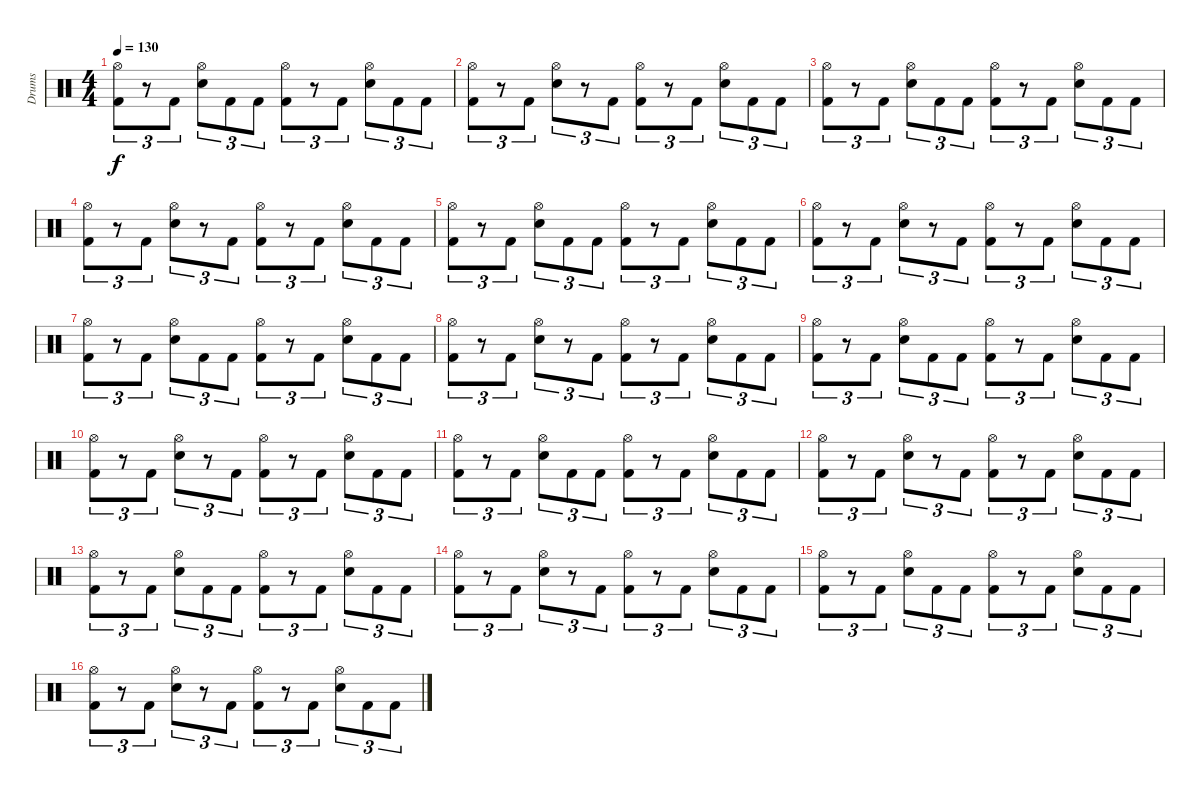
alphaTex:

\track ("Drums" "Drums") {instrument percussion}
\staff {score}
\articulation defaults
\ts (4 4)
\tempo 130
\clef neutral
\ks c
("Hi-Hat (open)" "Kick (hit) 2").8{tu (3 2) dy f} r.8{tu (3 2)} "Kick (hit) 2".8{tu (3 2)} ("Hi-Hat (open)" "Snare (hit) 2").8{tu (3 2)} "Kick (hit) 2".8{tu (3 2)} "Kick (hit) 2".8{tu (3 2)} ("Hi-Hat (open)" "Kick (hit) 2").8{tu (3 2)} r.8{tu (3 2)} "Kick (hit) 2".8{tu (3 2)} ("Hi-Hat (open)" "Snare (hit) 2").8{tu (3 2)} "Kick (hit) 2".8{tu (3 2)} "Kick (hit) 2".8{tu (3 2)} |
("Hi-Hat (open)" "Kick (hit) 2").8{tu (3 2)} r.8{tu (3 2)} "Kick (hit) 2".8{tu (3 2)} ("Hi-Hat (open)" "Snare (hit) 2").8{tu (3 2)} r.8{tu (3 2)} "Kick (hit) 2".8{tu (3 2)} ("Hi-Hat (open)" "Kick (hit) 2").8{tu (3 2)} r.8{tu (3 2)} "Kick (hit) 2".8{tu (3 2)} ("Hi-Hat (open)" "Snare (hit) 2").8{tu (3 2)} "Kick (hit) 2".8{tu (3 2)} "Kick (hit) 2".8{tu (3 2)} |
("Hi-Hat (open)" "Kick (hit) 2").8{tu (3 2)} r.8{tu (3 2)} "Kick (hit) 2".8{tu (3 2)} ("Hi-Hat (open)" "Snare (hit) 2").8{tu (3 2)} "Kick (hit) 2".8{tu (3 2)} "Kick (hit) 2".8{tu (3 2)} ("Hi-Hat (open)" "Kick (hit) 2").8{tu (3 2)} r.8{tu (3 2)} "Kick (hit) 2".8{tu (3 2)} ("Hi-Hat (open)" "Snare (hit) 2").8{tu (3 2)} "Kick (hit) 2".8{tu (3 2)} "Kick (hit) 2".8{tu (3 2)} |
("Hi-Hat (open)" "Kick (hit) 2").8{tu (3 2)} r.8{tu (3 2)} "Kick (hit) 2".8{tu (3 2)} ("Hi-Hat (open)" "Snare (hit) 2").8{tu (3 2)} r.8{tu (3 2)} "Kick (hit) 2".8{tu (3 2)} ("Hi-Hat (open)" "Kick (hit) 2").8{tu (3 2)} r.8{tu (3 2)} "Kick (hit) 2".8{tu (3 2)} ("Hi-Hat (open)" "Snare (hit) 2").8{tu (3 2)} "Kick (hit) 2".8{tu (3 2)} "Kick (hit) 2".8{tu (3 2)} |
("Hi-Hat (open)" "Kick (hit) 2").8{tu (3 2)} r.8{tu (3 2)} "Kick (hit) 2".8{tu (3 2)} ("Hi-Hat (open)" "Snare (hit) 2").8{tu (3 2)} "Kick (hit) 2".8{tu (3 2)} "Kick (hit) 2".8{tu (3 2)} ("Hi-Hat (open)" "Kick (hit) 2").8{tu (3 2)} r.8{tu (3 2)} "Kick (hit) 2".8{tu (3 2)} ("Hi-Hat (open)" "Snare (hit) 2").8{tu (3 2)} "Kick (hit) 2".8{tu (3 2)} "Kick (hit) 2".8{tu (3 2)} |
("Hi-Hat (open)" "Kick (hit) 2").8{tu (3 2)} r.8{tu (3 2)} "Kick (hit) 2".8{tu (3 2)} ("Hi-Hat (open)" "Snare (hit) 2").8{tu (3 2)} r.8{tu (3 2)} "Kick (hit) 2".8{tu (3 2)} ("Hi-Hat (open)" "Kick (hit) 2").8{tu (3 2)} r.8{tu (3 2)} "Kick (hit) 2".8{tu (3 2)} ("Hi-Hat (open)" "Snare (hit) 2").8{tu (3 2)} "Kick (hit) 2".8{tu (3 2)} "Kick (hit) 2".8{tu (3 2)} |
("Hi-Hat (open)" "Kick (hit) 2").8{tu (3 2)} r.8{tu (3 2)} "Kick (hit) 2".8{tu (3 2)} ("Hi-Hat (open)" "Snare (hit) 2").8{tu (3 2)} "Kick (hit) 2".8{tu (3 2)} "Kick (hit) 2".8{tu (3 2)} ("Hi-Hat (open)" "Kick (hit) 2").8{tu (3 2)} r.8{tu (3 2)} "Kick (hit) 2".8{tu (3 2)} ("Hi-Hat (open)" "Snare (hit) 2").8{tu (3 2)} "Kick (hit) 2".8{tu (3 2)} "Kick (hit) 2".8{tu (3 2)} |
("Hi-Hat (open)" "Kick (hit) 2").8{tu (3 2)} r.8{tu (3 2)} "Kick (hit) 2".8{tu (3 2)} ("Hi-Hat (open)" "Snare (hit) 2").8{tu (3 2)} r.8{tu (3 2)} "Kick (hit) 2".8{tu (3 2)} ("Hi-Hat (open)" "Kick (hit) 2").8{tu (3 2)} r.8{tu (3 2)} "Kick (hit) 2".8{tu (3 2)} ("Hi-Hat (open)" "Snare (hit) 2").8{tu (3 2)} "Kick (hit) 2".8{tu (3 2)} "Kick (hit) 2".8{tu (3 2)} |
("Hi-Hat (open)" "Kick (hit) 2").8{tu (3 2)} r.8{tu (3 2)} "Kick (hit) 2".8{tu (3 2)} ("Hi-Hat (open)" "Snare (hit) 2").8{tu (3 2)} "Kick (hit) 2".8{tu (3 2)} "Kick (hit) 2".8{tu (3 2)} ("Hi-Hat (open)" "Kick (hit) 2").8{tu (3 2)} r.8{tu (3 2)} "Kick (hit) 2".8{tu (3 2)} ("Hi-Hat (open)" "Snare (hit) 2").8{tu (3 2)} "Kick (hit) 2".8{tu (3 2)} "Kick (hit) 2".8{tu (3 2)} |
("Hi-Hat (open)" "Kick (hit) 2").8{tu (3 2)} r.8{tu (3 2)} "Kick (hit) 2".8{tu (3 2)} ("Hi-Hat (open)" "Snare (hit) 2").8{tu (3 2)} r.8{tu (3 2)} "Kick (hit) 2".8{tu (3 2)} ("Hi-Hat (open)" "Kick (hit) 2").8{tu (3 2)} r.8{tu (3 2)} "Kick (hit) 2".8{tu (3 2)} ("Hi-Hat (open)" "Snare (hit) 2").8{tu (3 2)} "Kick (hit) 2".8{tu (3 2)} "Kick (hit) 2".8{tu (3 2)} |
("Hi-Hat (open)" "Kick (hit) 2").8{tu (3 2)} r.8{tu (3 2)} "Kick (hit) 2".8{tu (3 2)} ("Hi-Hat (open)" "Snare (hit) 2").8{tu (3 2)} "Kick (hit) 2".8{tu (3 2)} "Kick (hit) 2".8{tu (3 2)} ("Hi-Hat (open)" "Kick (hit) 2").8{tu (3 2)} r.8{tu (3 2)} "Kick (hit) 2".8{tu (3 2)} ("Hi-Hat (open)" "Snare (hit) 2").8{tu (3 2)} "Kick (hit) 2".8{tu (3 2)} "Kick (hit) 2".8{tu (3 2)} |
("Hi-Hat (open)" "Kick (hit) 2").8{tu (3 2)} r.8{tu (3 2)} "Kick (hit) 2".8{tu (3 2)} ("Hi-Hat (open)" "Snare (hit) 2").8{tu (3 2)} r.8{tu (3 2)} "Kick (hit) 2".8{tu (3 2)} ("Hi-Hat (open)" "Kick (hit) 2").8{tu (3 2)} r.8{tu (3 2)} "Kick (hit) 2".8{tu (3 2)} ("Hi-Hat (open)" "Snare (hit) 2").8{tu (3 2)} "Kick (hit) 2".8{tu (3 2)} "Kick (hit) 2".8{tu (3 2)} |
("Hi-Hat (open)" "Kick (hit) 2").8{tu (3 2)} r.8{tu (3 2)} "Kick (hit) 2".8{tu (3 2)} ("Hi-Hat (open)" "Snare (hit) 2").8{tu (3 2)} "Kick (hit) 2".8{tu (3 2)} "Kick (hit) 2".8{tu (3 2)} ("Hi-Hat (open)" "Kick (hit) 2").8{tu (3 2)} r.8{tu (3 2)} "Kick (hit) 2".8{tu (3 2)} ("Hi-Hat (open)" "Snare (hit) 2").8{tu (3 2)} "Kick (hit) 2".8{tu (3 2)} "Kick (hit) 2".8{tu (3 2)} |
("Hi-Hat (open)" "Kick (hit) 2").8{tu (3 2)} r.8{tu (3 2)} "Kick (hit) 2".8{tu (3 2)} ("Hi-Hat (open)" "Snare (hit) 2").8{tu (3 2)} r.8{tu (3 2)} "Kick (hit) 2".8{tu (3 2)} ("Hi-Hat (open)" "Kick (hit) 2").8{tu (3 2)} r.8{tu (3 2)} "Kick (hit) 2".8{tu (3 2)} ("Hi-Hat (open)" "Snare (hit) 2").8{tu (3 2)} "Kick (hit) 2".8{tu (3 2)} "Kick (hit) 2".8{tu (3 2)} |
("Hi-Hat (open)" "Kick (hit) 2").8{tu (3 2)} r.8{tu (3 2)} "Kick (hit) 2".8{tu (3 2)} ("Hi-Hat (open)" "Snare (hit) 2").8{tu (3 2)} "Kick (hit) 2".8{tu (3 2)} "Kick (hit) 2".8{tu (3 2)} ("Hi-Hat (open)" "Kick (hit) 2").8{tu (3 2)} r.8{tu (3 2)} "Kick (hit) 2".8{tu (3 2)} ("Hi-Hat (open)" "Snare (hit) 2").8{tu (3 2)} "Kick (hit) 2".8{tu (3 2)} "Kick (hit) 2".8{tu (3 2)} |
("Hi-Hat (open)" "Kick (hit) 2").8{tu (3 2)} r.8{tu (3 2)} "Kick (hit) 2".8{tu (3 2)} ("Hi-Hat (open)" "Snare (hit) 2").8{tu (3 2)} r.8{tu (3 2)} "Kick (hit) 2".8{tu (3 2)} ("Hi-Hat (open)" "Kick (hit) 2").8{tu (3 2)} r.8{tu (3 2)} "Kick (hit) 2".8{tu (3 2)} ("Hi-Hat (open)" "Snare (hit) 2").8{tu (3 2)} "Kick (hit) 2".8{tu (3 2)} "Kick (hit) 2".8{tu (3 2)}
